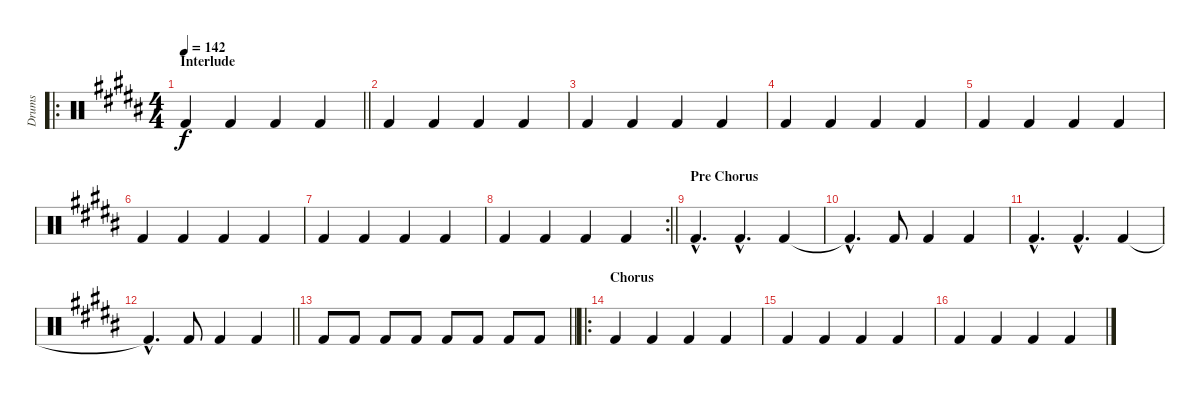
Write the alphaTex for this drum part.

\track ("Drums" "Drums") {instrument percussion}
\staff {score}
\articulation defaults
\ro
\ts (4 4)
\section ("" "Interlude")
\tempo 142
\clef neutral
\barLineRight lightlight
\ks b "Kick (hit) 2".4{dy f} "Kick (hit) 2".4 "Kick (hit) 2".4 "Kick (hit) 2".4
|
"Kick (hit) 2".4 "Kick (hit) 2".4 "Kick (hit) 2".4 "Kick (hit) 2".4 |
"Kick (hit) 2".4 "Kick (hit) 2".4 "Kick (hit) 2".4 "Kick (hit) 2".4 |
"Kick (hit) 2".4 "Kick (hit) 2".4 "Kick (hit) 2".4 "Kick (hit) 2".4 |
"Kick (hit) 2".4 "Kick (hit) 2".4 "Kick (hit) 2".4 "Kick (hit) 2".4 |
"Kick (hit) 2".4 "Kick (hit) 2".4 "Kick (hit) 2".4 "Kick (hit) 2".4 |
"Kick (hit) 2".4 "Kick (hit) 2".4 "Kick (hit) 2".4 "Kick (hit) 2".4 |
\rc 2
\barLineRight lightlight "Kick (hit) 2".4 "Kick (hit) 2".4 "Kick (hit) 2".4 "Kick (hit) 2".4
|
\section ("" "Pre Chorus")
"Kick (hit) 2"{hac}.4{d} "Kick (hit) 2"{hac}.4{d} "Kick (hit) 2".4 |
"Kick (hit) 2"{hac t}.4{d} "Kick (hit) 2".8 "Kick (hit) 2".4 "Kick (hit) 2".4 |
"Kick (hit) 2"{hac}.4{d} "Kick (hit) 2"{hac}.4{d} "Kick (hit) 2".4 |
\barLineRight lightlight "Kick (hit) 2"{hac t}.4{d} "Kick (hit) 2".8 "Kick (hit) 2".4 "Kick (hit) 2".4
|
\barLineRight lightlight "Kick (hit) 2".8 "Kick (hit) 2".8 "Kick (hit) 2".8 "Kick (hit) 2".8 "Kick (hit) 2".8 "Kick (hit) 2".8 "Kick (hit) 2".8 "Kick (hit) 2".8
|
\ro
\section ("" "Chorus")
"Kick (hit) 2".4 "Kick (hit) 2".4 "Kick (hit) 2".4 "Kick (hit) 2".4 |
"Kick (hit) 2".4 "Kick (hit) 2".4 "Kick (hit) 2".4 "Kick (hit) 2".4 |
"Kick (hit) 2".4 "Kick (hit) 2".4 "Kick (hit) 2".4 "Kick (hit) 2".4
